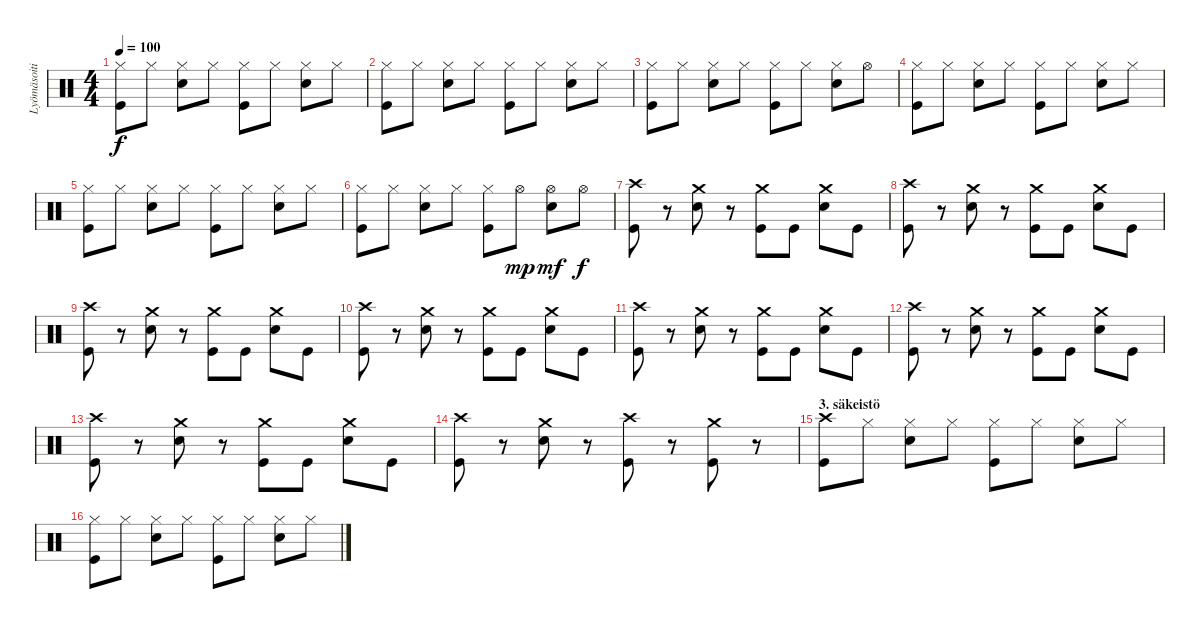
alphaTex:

\track ("Lyömäsoitin" "Lyömäsoiti") {instrument percussion}
\staff {score}
\articulation defaults
\ts (4 4)
\tempo 100
\clef neutral
\ks c
("Hi-Hat (closed)" "Kick (hit)").8{dy f} "Hi-Hat (closed)".8 ("Hi-Hat (closed)" "Electric Snare (hit)").8 "Hi-Hat (closed)".8 ("Hi-Hat (closed)" "Kick (hit)").8 "Hi-Hat (closed)".8 ("Hi-Hat (closed)" "Electric Snare (hit)").8 "Hi-Hat (closed)".8 |
("Hi-Hat (closed)" "Kick (hit)").8 "Hi-Hat (closed)".8 ("Hi-Hat (closed)" "Electric Snare (hit)").8 "Hi-Hat (closed)".8 ("Hi-Hat (closed)" "Kick (hit)").8 "Hi-Hat (closed)".8 ("Hi-Hat (closed)" "Electric Snare (hit)").8 "Hi-Hat (closed)".8 |
("Hi-Hat (closed)" "Kick (hit)").8 "Hi-Hat (closed)".8 ("Hi-Hat (closed)" "Electric Snare (hit)").8 "Hi-Hat (closed)".8 ("Hi-Hat (closed)" "Kick (hit)").8 "Hi-Hat (closed)".8 ("Hi-Hat (closed)" "Electric Snare (hit)").8 "Hi-Hat (open)".8 |
("Hi-Hat (closed)" "Kick (hit)").8 "Hi-Hat (closed)".8 ("Hi-Hat (closed)" "Electric Snare (hit)").8 "Hi-Hat (closed)".8 ("Hi-Hat (closed)" "Kick (hit)").8 "Hi-Hat (closed)".8 ("Hi-Hat (closed)" "Electric Snare (hit)").8 "Hi-Hat (closed)".8 |
("Hi-Hat (closed)" "Kick (hit)").8 "Hi-Hat (closed)".8 ("Hi-Hat (closed)" "Electric Snare (hit)").8 "Hi-Hat (closed)".8 ("Hi-Hat (closed)" "Kick (hit)").8 "Hi-Hat (closed)".8 ("Hi-Hat (closed)" "Electric Snare (hit)").8 "Hi-Hat (closed)".8 |
("Hi-Hat (closed)" "Kick (hit)").8 "Hi-Hat (closed)".8 ("Hi-Hat (closed)" "Electric Snare (hit)").8 "Hi-Hat (closed)".8 ("Hi-Hat (closed)" "Kick (hit)").8 "Hi-Hat (open)".8{dy mp} ("Hi-Hat (open)" "Electric Snare (hit)").8{dy mf} "Hi-Hat (open)".8{dy f} |
("Crash high (hit)" "Kick (hit)").8 r.8 ("Crash medium (hit)" "Electric Snare (hit)").8 r.8 ("Crash medium (hit)" "Kick (hit)").8 "Kick (hit)".8 ("Crash medium (hit)" "Electric Snare (hit)").8 "Kick (hit)".8 |
("Crash high (hit)" "Kick (hit)").8 r.8 ("Crash medium (hit)" "Electric Snare (hit)").8 r.8 ("Crash medium (hit)" "Kick (hit)").8 "Kick (hit)".8 ("Crash medium (hit)" "Electric Snare (hit)").8 "Kick (hit)".8 |
("Crash high (hit)" "Kick (hit)").8 r.8 ("Crash medium (hit)" "Electric Snare (hit)").8 r.8 ("Crash medium (hit)" "Kick (hit)").8 "Kick (hit)".8 ("Crash medium (hit)" "Electric Snare (hit)").8 "Kick (hit)".8 |
("Crash high (hit)" "Kick (hit)").8 r.8 ("Crash medium (hit)" "Electric Snare (hit)").8 r.8 ("Crash medium (hit)" "Kick (hit)").8 "Kick (hit)".8 ("Crash medium (hit)" "Electric Snare (hit)").8 "Kick (hit)".8 |
("Crash high (hit)" "Kick (hit)").8 r.8 ("Crash medium (hit)" "Electric Snare (hit)").8 r.8 ("Crash medium (hit)" "Kick (hit)").8 "Kick (hit)".8 ("Crash medium (hit)" "Electric Snare (hit)").8 "Kick (hit)".8 |
("Crash high (hit)" "Kick (hit)").8 r.8 ("Crash medium (hit)" "Electric Snare (hit)").8 r.8 ("Crash medium (hit)" "Kick (hit)").8 "Kick (hit)".8 ("Crash medium (hit)" "Electric Snare (hit)").8 "Kick (hit)".8 |
("Crash high (hit)" "Kick (hit)").8 r.8 ("Crash medium (hit)" "Electric Snare (hit)").8 r.8 ("Crash medium (hit)" "Kick (hit)").8 "Kick (hit)".8 ("Crash medium (hit)" "Electric Snare (hit)").8 "Kick (hit)".8 |
("Crash high (hit)" "Kick (hit)").8 r.8 ("Crash medium (hit)" "Electric Snare (hit)").8 r.8 ("Crash high (hit)" "Kick (hit)").8 r.8 ("Crash medium (hit)" "Kick (hit)").8 r.8 |
\section ("" "3. säkeistö")
("Crash high (hit)" "Kick (hit)").8 "Hi-Hat (closed)".8 ("Hi-Hat (closed)" "Electric Snare (hit)").8 "Hi-Hat (closed)".8 ("Hi-Hat (closed)" "Kick (hit)").8 "Hi-Hat (closed)".8 ("Hi-Hat (closed)" "Electric Snare (hit)").8 "Hi-Hat (closed)".8 |
("Hi-Hat (closed)" "Kick (hit)").8 "Hi-Hat (closed)".8 ("Hi-Hat (closed)" "Electric Snare (hit)").8 "Hi-Hat (closed)".8 ("Hi-Hat (closed)" "Kick (hit)").8 "Hi-Hat (closed)".8 ("Hi-Hat (closed)" "Electric Snare (hit)").8 "Hi-Hat (closed)".8
